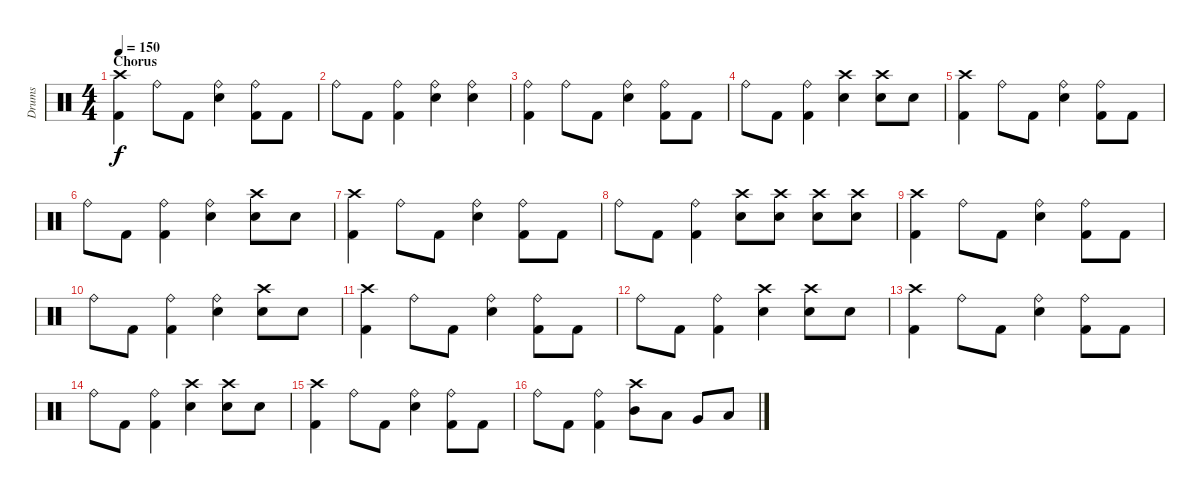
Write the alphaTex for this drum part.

\track ("Drums" "Drums") {instrument percussion}
\staff {score}
\articulation defaults
\ts (4 4)
\section ("" "Chorus")
\tempo 150
\clef neutral
\ks c
("Crash high (hit)" "Kick (hit) 2").4{dy f} "Ride (bell)".8 "Kick (hit) 2".8 ("Ride (bell)" "Electric Snare (hit)").4 ("Ride (bell)" "Kick (hit) 2").8 "Kick (hit) 2".8 |
"Ride (bell)".8 "Kick (hit) 2".8 ("Ride (bell)" "Kick (hit) 2").4 ("Ride (bell)" "Electric Snare (hit)").4 ("Ride (bell)" "Electric Snare (hit)").4 |
("Ride (bell)" "Kick (hit) 2").4 "Ride (bell)".8 "Kick (hit) 2".8 ("Ride (bell)" "Electric Snare (hit)").4 ("Ride (bell)" "Kick (hit) 2").8 "Kick (hit) 2".8 |
"Ride (bell)".8 "Kick (hit) 2".8 ("Ride (bell)" "Kick (hit) 2").4 ("Crash high (hit)" "Electric Snare (hit)").4 ("Crash high (hit)" "Electric Snare (hit)").8 "Electric Snare (hit)".8 |
("Crash high (hit)" "Kick (hit) 2").4 "Ride (bell)".8 "Kick (hit) 2".8 ("Ride (bell)" "Electric Snare (hit)").4 ("Ride (bell)" "Kick (hit) 2").8 "Kick (hit) 2".8 |
"Ride (bell)".8 "Kick (hit) 2".8 ("Ride (bell)" "Kick (hit) 2").4 ("Ride (bell)" "Electric Snare (hit)").4 ("Crash high (hit)" "Electric Snare (hit)").8 "Electric Snare (hit)".8 |
("Crash high (hit)" "Kick (hit) 2").4 "Ride (bell)".8 "Kick (hit) 2".8 ("Ride (bell)" "Electric Snare (hit)").4 ("Ride (bell)" "Kick (hit) 2").8 "Kick (hit) 2".8 |
"Ride (bell)".8 "Kick (hit) 2".8 ("Ride (bell)" "Kick (hit) 2").4 ("Crash high (hit)" "Electric Snare (hit)").8 ("Crash high (hit)" "Electric Snare (hit)").8 ("Crash high (hit)" "Electric Snare (hit)").8 ("Crash high (hit)" "Electric Snare (hit)").8 |
("Crash high (hit)" "Kick (hit) 2").4 "Ride (bell)".8 "Kick (hit) 2".8 ("Ride (bell)" "Electric Snare (hit)").4 ("Ride (bell)" "Kick (hit) 2").8 "Kick (hit) 2".8 |
"Ride (bell)".8 "Kick (hit) 2".8 ("Ride (bell)" "Kick (hit) 2").4 ("Ride (bell)" "Electric Snare (hit)").4 ("Crash high (hit)" "Electric Snare (hit)").8 "Electric Snare (hit)".8 |
("Crash high (hit)" "Kick (hit) 2").4 "Ride (bell)".8 "Kick (hit) 2".8 ("Ride (bell)" "Electric Snare (hit)").4 ("Ride (bell)" "Kick (hit) 2").8 "Kick (hit) 2".8 |
"Ride (bell)".8 "Kick (hit) 2".8 ("Ride (bell)" "Kick (hit) 2").4 ("Crash high (hit)" "Electric Snare (hit)").4 ("Crash high (hit)" "Electric Snare (hit)").8 "Electric Snare (hit)".8 |
("Crash high (hit)" "Kick (hit) 2").4 "Ride (bell)".8 "Kick (hit) 2".8 ("Ride (bell)" "Electric Snare (hit)").4 ("Ride (bell)" "Kick (hit) 2").8 "Kick (hit) 2".8 |
"Ride (bell)".8 "Kick (hit) 2".8 ("Ride (bell)" "Kick (hit) 2").4 ("Crash high (hit)" "Electric Snare (hit)").4 ("Crash high (hit)" "Electric Snare (hit)").8 "Electric Snare (hit)".8 |
("Crash high (hit)" "Kick (hit) 2").4 "Ride (bell)".8 "Kick (hit) 2".8 ("Ride (bell)" "Electric Snare (hit)").4 ("Ride (bell)" "Kick (hit) 2").8 "Kick (hit) 2".8 |
"Ride (bell)".8 "Kick (hit) 2".8 ("Ride (bell)" "Kick (hit) 2").4 ("Crash high (hit)" "Mid Tom (hit)").8 "Low Tom (hit)".8 "Very Low Tom (hit)".8 "Low Floor Tom (hit)".8
